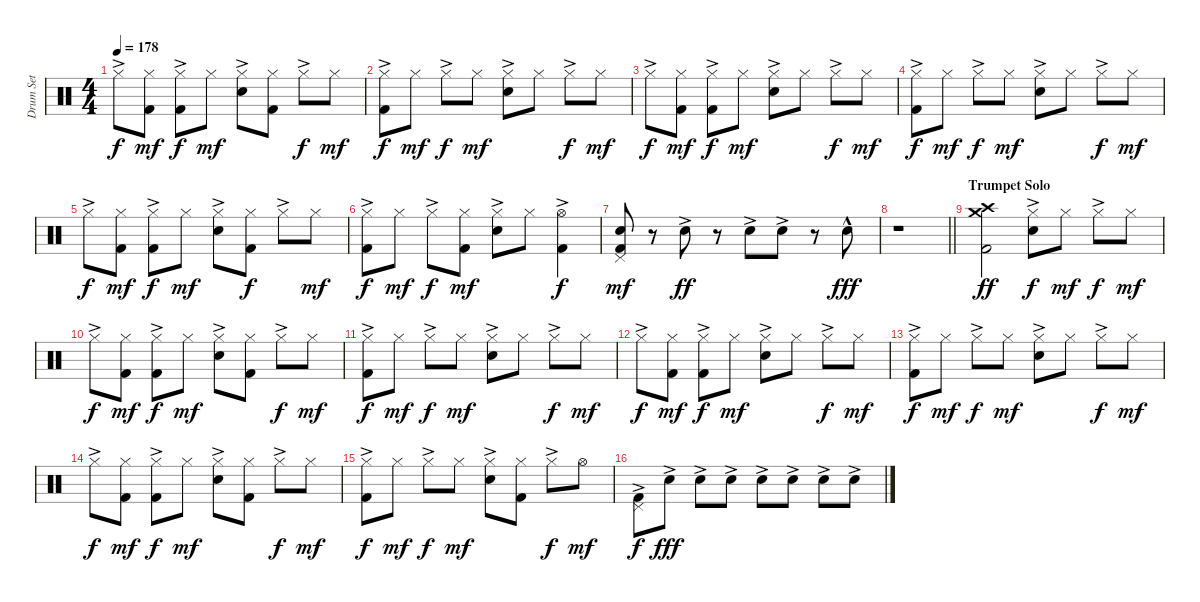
\track ("Drum Set" "Drum Set") {instrument percussion}
\staff {score}
\articulation defaults
\ts (4 4)
\tempo 178
\clef neutral
\ks c "Hi-Hat (closed)"{ac}.8{dy f}
("Hi-Hat (closed)" "Kick (hit) 2").8{dy mf} ("Hi-Hat (closed)"{ac} "Kick (hit) 2").8{dy f} "Hi-Hat (closed)".8{dy mf} ("Hi-Hat (closed)"{ac} "Electric Snare (hit)").8 ("Hi-Hat (closed)" "Kick (hit) 2").8 "Hi-Hat (closed)"{ac}.8{dy f} "Hi-Hat (closed)".8{dy mf} |
("Hi-Hat (closed)"{ac} "Kick (hit) 2").8{dy f} "Hi-Hat (closed)".8{dy mf} "Hi-Hat (closed)"{ac}.8{dy f} "Hi-Hat (closed)".8{dy mf} ("Hi-Hat (closed)"{ac} "Electric Snare (hit)").8 "Hi-Hat (closed)".8 "Hi-Hat (closed)"{ac}.8{dy f} "Hi-Hat (closed)".8{dy mf} |
"Hi-Hat (closed)"{ac}.8{dy f} ("Hi-Hat (closed)" "Kick (hit) 2").8{dy mf} ("Hi-Hat (closed)"{ac} "Kick (hit) 2").8{dy f} "Hi-Hat (closed)".8{dy mf} ("Hi-Hat (closed)"{ac} "Electric Snare (hit)").8 "Hi-Hat (closed)".8 "Hi-Hat (closed)"{ac}.8{dy f} "Hi-Hat (closed)".8{dy mf} |
("Hi-Hat (closed)"{ac} "Kick (hit) 2").8{dy f} "Hi-Hat (closed)".8{dy mf} "Hi-Hat (closed)"{ac}.8{dy f} "Hi-Hat (closed)".8{dy mf} ("Hi-Hat (closed)"{ac} "Electric Snare (hit)").8 "Hi-Hat (closed)".8 "Hi-Hat (closed)"{ac}.8{dy f} "Hi-Hat (closed)".8{dy mf} |
"Hi-Hat (closed)"{ac}.8{dy f} ("Hi-Hat (closed)" "Kick (hit) 2").8{dy mf} ("Hi-Hat (closed)"{ac} "Kick (hit) 2").8{dy f} "Hi-Hat (closed)".8{dy mf} ("Hi-Hat (closed)"{ac} "Electric Snare (hit)").8 ("Hi-Hat (closed)" "Kick (hit) 2").8{dy f} "Hi-Hat (closed)"{ac}.8 "Hi-Hat (closed)".8{dy mf} |
("Hi-Hat (closed)"{ac} "Kick (hit) 2").8{dy f} "Hi-Hat (closed)".8{dy mf} "Hi-Hat (closed)"{ac}.8{dy f} ("Hi-Hat (closed)" "Kick (hit) 2").8{dy mf} ("Hi-Hat (closed)"{ac} "Electric Snare (hit)").8 "Hi-Hat (closed)".8 ("Hi-Hat (open)"{ac} "Kick (hit) 2").4{dy f} |
("Pedal Hi-Hat (hit)" "Electric Snare (hit)" "Kick (hit) 2").8{dy mf} r.8 "Electric Snare (hit)"{ac}.8{dy ff} r.8 "Electric Snare (hit)"{ac}.8{beam Down} "Electric Snare (hit)"{ac}.8{beam Down} r.8 "Electric Snare (hit)"{hac}.8{dy fff} |
\barLineRight lightlight
r.1 |
\section ("" "Trumpet Solo")
("Crash medium (hit)" "Crash high (hit)" "Kick (hit) 2").2{dy ff} ("Hi-Hat (closed)"{ac} "Electric Snare (hit)").8{dy f} "Hi-Hat (closed)".8{dy mf} "Hi-Hat (closed)"{ac}.8{dy f} "Hi-Hat (closed)".8{dy mf} |
"Hi-Hat (closed)"{ac}.8{dy f} ("Hi-Hat (closed)" "Kick (hit) 2").8{dy mf} ("Hi-Hat (closed)"{ac} "Kick (hit) 2").8{dy f} "Hi-Hat (closed)".8{dy mf} ("Hi-Hat (closed)"{ac} "Electric Snare (hit)").8 ("Hi-Hat (closed)" "Kick (hit) 2").8 "Hi-Hat (closed)"{ac}.8{dy f} "Hi-Hat (closed)".8{dy mf} |
("Hi-Hat (closed)"{ac} "Kick (hit) 2").8{dy f} "Hi-Hat (closed)".8{dy mf} "Hi-Hat (closed)"{ac}.8{dy f} "Hi-Hat (closed)".8{dy mf} ("Hi-Hat (closed)"{ac} "Electric Snare (hit)").8 "Hi-Hat (closed)".8 "Hi-Hat (closed)"{ac}.8{dy f} "Hi-Hat (closed)".8{dy mf} |
"Hi-Hat (closed)"{ac}.8{dy f} ("Hi-Hat (closed)" "Kick (hit) 2").8{dy mf} ("Hi-Hat (closed)"{ac} "Kick (hit) 2").8{dy f} "Hi-Hat (closed)".8{dy mf} ("Hi-Hat (closed)"{ac} "Electric Snare (hit)").8 "Hi-Hat (closed)".8 "Hi-Hat (closed)"{ac}.8{dy f} "Hi-Hat (closed)".8{dy mf} |
("Hi-Hat (closed)"{ac} "Kick (hit) 2").8{dy f} "Hi-Hat (closed)".8{dy mf} "Hi-Hat (closed)"{ac}.8{dy f} "Hi-Hat (closed)".8{dy mf} ("Hi-Hat (closed)"{ac} "Electric Snare (hit)").8 "Hi-Hat (closed)".8 "Hi-Hat (closed)"{ac}.8{dy f} "Hi-Hat (closed)".8{dy mf} |
"Hi-Hat (closed)"{ac}.8{dy f} ("Hi-Hat (closed)" "Kick (hit) 2").8{dy mf} ("Hi-Hat (closed)"{ac} "Kick (hit) 2").8{dy f} "Hi-Hat (closed)".8{dy mf} ("Hi-Hat (closed)"{ac} "Electric Snare (hit)").8 ("Hi-Hat (closed)" "Kick (hit) 2").8 "Hi-Hat (closed)"{ac}.8{dy f} "Hi-Hat (closed)".8{dy mf} |
("Hi-Hat (closed)"{ac} "Kick (hit) 2").8{dy f} "Hi-Hat (closed)".8{dy mf} "Hi-Hat (closed)"{ac}.8{dy f} "Hi-Hat (closed)".8{dy mf} ("Hi-Hat (closed)"{ac} "Electric Snare (hit)").8 ("Hi-Hat (closed)" "Kick (hit) 2").8 "Hi-Hat (closed)"{ac}.8{dy f} "Hi-Hat (open)".8{dy mf} |
("Pedal Hi-Hat (hit)"{ac} "Kick (hit) 2").8{dy f beam Down} "Electric Snare (hit)"{ac}.8{dy fff volume 7 beam Down} "Electric Snare (hit)"{ac}.8{volume 15} "Electric Snare (hit)"{ac}.8 "Electric Snare (hit)"{ac}.8 "Electric Snare (hit)"{ac}.8 "Electric Snare (hit)"{ac}.8 "Electric Snare (hit)"{ac}.8
